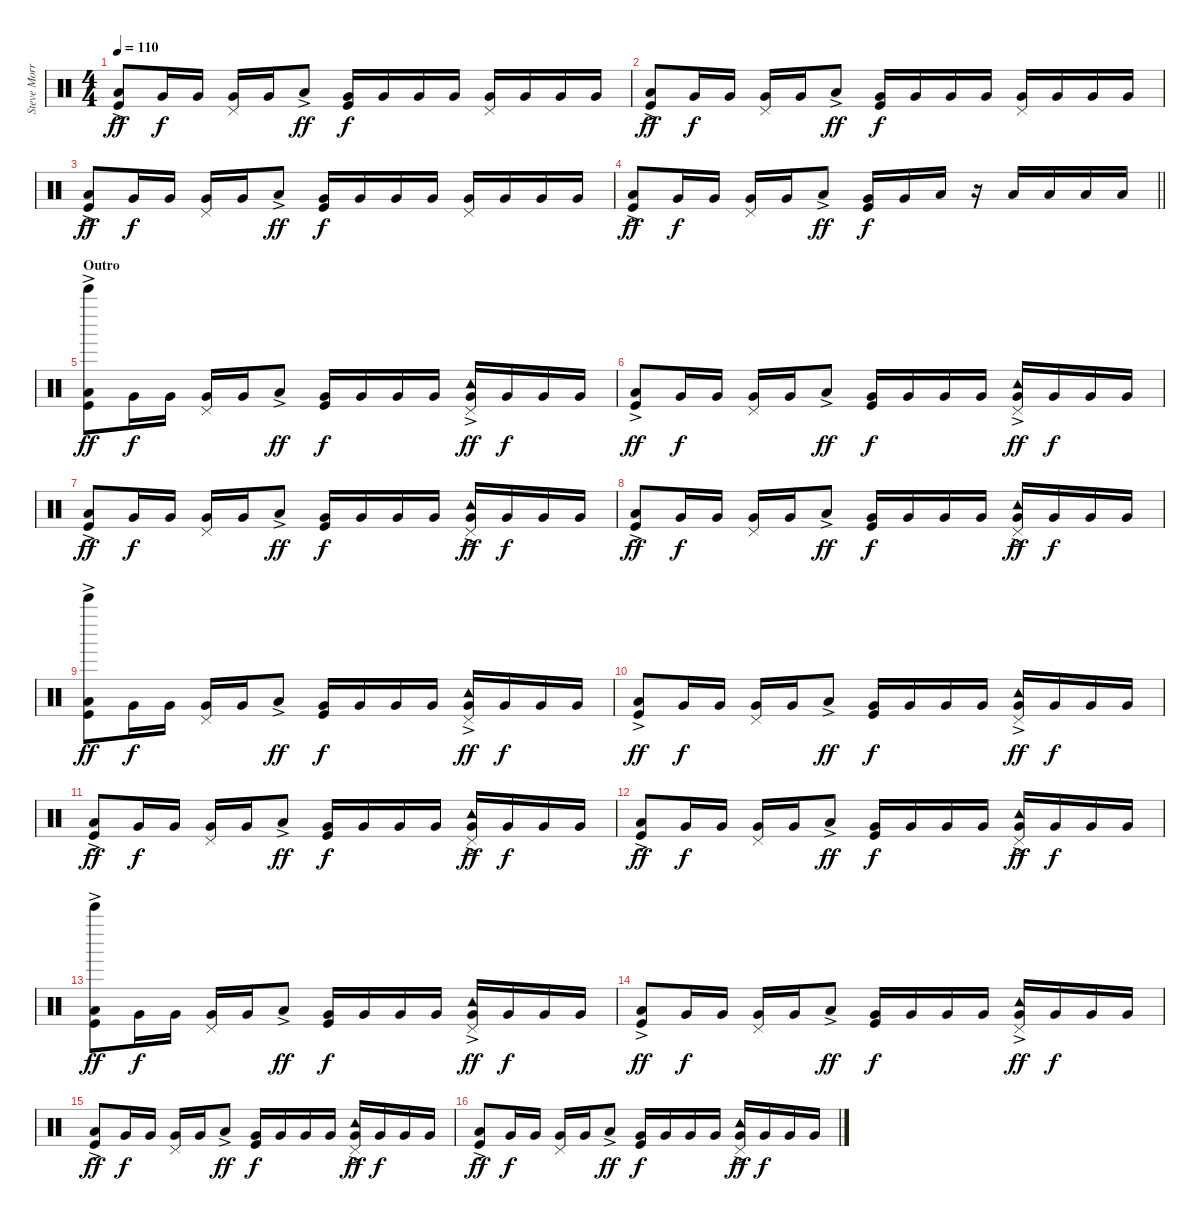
\track ("Steve Morris Drums" "Steve Morr") {instrument percussion}
\staff {score}
\articulation defaults
\ts (4 4)
\tempo 110
\clef neutral
\ks c
("Low Tom (hit)"{ac} "Kick (hit)").8{dy ff} "Very Low Tom (hit)".16{dy f} "Very Low Tom (hit)".16 ("Pedal Hi-Hat (hit)" "Very Low Tom (hit)").16 "Very Low Tom (hit)".16 "Low Tom (hit)"{ac}.8{dy ff} ("Very Low Tom (hit)" "Kick (hit)").16{dy f} "Very Low Tom (hit)".16 "Very Low Tom (hit)".16 "Very Low Tom (hit)".16 ("Pedal Hi-Hat (hit)" "Very Low Tom (hit)").16 "Very Low Tom (hit)".16 "Very Low Tom (hit)".16 "Very Low Tom (hit)".16 |
("Low Tom (hit)"{ac} "Kick (hit)").8{dy ff} "Very Low Tom (hit)".16{dy f} "Very Low Tom (hit)".16 ("Pedal Hi-Hat (hit)" "Very Low Tom (hit)").16 "Very Low Tom (hit)".16 "Low Tom (hit)"{ac}.8{dy ff} ("Very Low Tom (hit)" "Kick (hit)").16{dy f} "Very Low Tom (hit)".16 "Very Low Tom (hit)".16 "Very Low Tom (hit)".16 ("Pedal Hi-Hat (hit)" "Very Low Tom (hit)").16 "Very Low Tom (hit)".16 "Very Low Tom (hit)".16 "Very Low Tom (hit)".16 |
("Low Tom (hit)"{ac} "Kick (hit)").8{dy ff} "Very Low Tom (hit)".16{dy f} "Very Low Tom (hit)".16 ("Pedal Hi-Hat (hit)" "Very Low Tom (hit)").16 "Very Low Tom (hit)".16 "Low Tom (hit)"{ac}.8{dy ff} ("Very Low Tom (hit)" "Kick (hit)").16{dy f} "Very Low Tom (hit)".16 "Very Low Tom (hit)".16 "Very Low Tom (hit)".16 ("Pedal Hi-Hat (hit)" "Very Low Tom (hit)").16 "Very Low Tom (hit)".16 "Very Low Tom (hit)".16 "Very Low Tom (hit)".16 |
\barLineRight lightlight
("Low Tom (hit)"{ac} "Kick (hit)").8{dy ff} "Very Low Tom (hit)".16{dy f} "Very Low Tom (hit)".16 ("Pedal Hi-Hat (hit)" "Very Low Tom (hit)").16 "Very Low Tom (hit)".16 "Low Tom (hit)"{ac}.8{dy ff} ("Very Low Tom (hit)" "Kick (hit)").16{dy f} "Very Low Tom (hit)".16 "Low Tom (hit)".16 r.16 "Low Tom (hit)".16 "Low Tom (hit)".16 "Low Tom (hit)".16 "Low Tom (hit)".16 |
\section ("" "Outro")
("Bell Tree (hit)" "Low Tom (hit)"{ac} "Kick (hit)").8{dy ff} "Very Low Tom (hit)".16{dy f} "Very Low Tom (hit)".16 ("Pedal Hi-Hat (hit)" "Very Low Tom (hit)").16 "Very Low Tom (hit)".16 "Low Tom (hit)"{ac}.8{dy ff} ("Very Low Tom (hit)" "Kick (hit)").16{dy f} "Very Low Tom (hit)".16 "Very Low Tom (hit)".16 "Very Low Tom (hit)".16 ("Pedal Hi-Hat (hit)" "Tambourine (hit)"{ac} "Very Low Tom (hit)").16{dy ff} "Very Low Tom (hit)".16{dy f} "Very Low Tom (hit)".16 "Very Low Tom (hit)".16 |
("Low Tom (hit)"{ac} "Kick (hit)").8{dy ff} "Very Low Tom (hit)".16{dy f} "Very Low Tom (hit)".16 ("Pedal Hi-Hat (hit)" "Very Low Tom (hit)").16 "Very Low Tom (hit)".16 "Low Tom (hit)"{ac}.8{dy ff} ("Very Low Tom (hit)" "Kick (hit)").16{dy f} "Very Low Tom (hit)".16 "Very Low Tom (hit)".16 "Very Low Tom (hit)".16 ("Pedal Hi-Hat (hit)" "Tambourine (hit)"{ac} "Very Low Tom (hit)").16{dy ff} "Very Low Tom (hit)".16{dy f} "Very Low Tom (hit)".16 "Very Low Tom (hit)".16 |
("Low Tom (hit)"{ac} "Kick (hit)").8{dy ff} "Very Low Tom (hit)".16{dy f} "Very Low Tom (hit)".16 ("Pedal Hi-Hat (hit)" "Very Low Tom (hit)").16 "Very Low Tom (hit)".16 "Low Tom (hit)"{ac}.8{dy ff} ("Very Low Tom (hit)" "Kick (hit)").16{dy f} "Very Low Tom (hit)".16 "Very Low Tom (hit)".16 "Very Low Tom (hit)".16 ("Pedal Hi-Hat (hit)" "Tambourine (hit)"{ac} "Very Low Tom (hit)").16{dy ff} "Very Low Tom (hit)".16{dy f} "Very Low Tom (hit)".16 "Very Low Tom (hit)".16 |
("Low Tom (hit)"{ac} "Kick (hit)").8{dy ff} "Very Low Tom (hit)".16{dy f} "Very Low Tom (hit)".16 ("Pedal Hi-Hat (hit)" "Very Low Tom (hit)").16 "Very Low Tom (hit)".16 "Low Tom (hit)"{ac}.8{dy ff} ("Very Low Tom (hit)" "Kick (hit)").16{dy f} "Very Low Tom (hit)".16 "Very Low Tom (hit)".16 "Very Low Tom (hit)".16 ("Pedal Hi-Hat (hit)" "Tambourine (hit)"{ac} "Very Low Tom (hit)").16{dy ff} "Very Low Tom (hit)".16{dy f} "Very Low Tom (hit)".16 "Very Low Tom (hit)".16 |
("Bell Tree (hit)" "Low Tom (hit)"{ac} "Kick (hit)").8{dy ff} "Very Low Tom (hit)".16{dy f} "Very Low Tom (hit)".16 ("Pedal Hi-Hat (hit)" "Very Low Tom (hit)").16 "Very Low Tom (hit)".16 "Low Tom (hit)"{ac}.8{dy ff} ("Very Low Tom (hit)" "Kick (hit)").16{dy f} "Very Low Tom (hit)".16 "Very Low Tom (hit)".16 "Very Low Tom (hit)".16 ("Pedal Hi-Hat (hit)" "Tambourine (hit)"{ac} "Very Low Tom (hit)").16{dy ff} "Very Low Tom (hit)".16{dy f} "Very Low Tom (hit)".16 "Very Low Tom (hit)".16 |
("Low Tom (hit)"{ac} "Kick (hit)").8{dy ff} "Very Low Tom (hit)".16{dy f} "Very Low Tom (hit)".16 ("Pedal Hi-Hat (hit)" "Very Low Tom (hit)").16 "Very Low Tom (hit)".16 "Low Tom (hit)"{ac}.8{dy ff} ("Very Low Tom (hit)" "Kick (hit)").16{dy f} "Very Low Tom (hit)".16 "Very Low Tom (hit)".16 "Very Low Tom (hit)".16 ("Pedal Hi-Hat (hit)" "Tambourine (hit)"{ac} "Very Low Tom (hit)").16{dy ff} "Very Low Tom (hit)".16{dy f} "Very Low Tom (hit)".16 "Very Low Tom (hit)".16 |
("Low Tom (hit)"{ac} "Kick (hit)").8{dy ff} "Very Low Tom (hit)".16{dy f} "Very Low Tom (hit)".16 ("Pedal Hi-Hat (hit)" "Very Low Tom (hit)").16 "Very Low Tom (hit)".16 "Low Tom (hit)"{ac}.8{dy ff} ("Very Low Tom (hit)" "Kick (hit)").16{dy f} "Very Low Tom (hit)".16 "Very Low Tom (hit)".16 "Very Low Tom (hit)".16 ("Pedal Hi-Hat (hit)" "Tambourine (hit)"{ac} "Very Low Tom (hit)").16{dy ff} "Very Low Tom (hit)".16{dy f} "Very Low Tom (hit)".16 "Very Low Tom (hit)".16 |
("Low Tom (hit)"{ac} "Kick (hit)").8{dy ff} "Very Low Tom (hit)".16{dy f} "Very Low Tom (hit)".16 ("Pedal Hi-Hat (hit)" "Very Low Tom (hit)").16 "Very Low Tom (hit)".16 "Low Tom (hit)"{ac}.8{dy ff} ("Very Low Tom (hit)" "Kick (hit)").16{dy f} "Very Low Tom (hit)".16 "Very Low Tom (hit)".16 "Very Low Tom (hit)".16 ("Pedal Hi-Hat (hit)" "Tambourine (hit)"{ac} "Very Low Tom (hit)").16{dy ff} "Very Low Tom (hit)".16{dy f} "Very Low Tom (hit)".16 "Very Low Tom (hit)".16 |
("Bell Tree (hit)" "Low Tom (hit)"{ac} "Kick (hit)").8{dy ff} "Very Low Tom (hit)".16{dy f} "Very Low Tom (hit)".16 ("Pedal Hi-Hat (hit)" "Very Low Tom (hit)").16 "Very Low Tom (hit)".16 "Low Tom (hit)"{ac}.8{dy ff} ("Very Low Tom (hit)" "Kick (hit)").16{dy f} "Very Low Tom (hit)".16 "Very Low Tom (hit)".16 "Very Low Tom (hit)".16 ("Pedal Hi-Hat (hit)" "Tambourine (hit)"{ac} "Very Low Tom (hit)").16{dy ff} "Very Low Tom (hit)".16{dy f} "Very Low Tom (hit)".16 "Very Low Tom (hit)".16 |
("Low Tom (hit)"{ac} "Kick (hit)").8{dy ff} "Very Low Tom (hit)".16{dy f} "Very Low Tom (hit)".16 ("Pedal Hi-Hat (hit)" "Very Low Tom (hit)").16 "Very Low Tom (hit)".16 "Low Tom (hit)"{ac}.8{dy ff} ("Very Low Tom (hit)" "Kick (hit)").16{dy f} "Very Low Tom (hit)".16 "Very Low Tom (hit)".16 "Very Low Tom (hit)".16 ("Pedal Hi-Hat (hit)" "Tambourine (hit)"{ac} "Very Low Tom (hit)").16{dy ff} "Very Low Tom (hit)".16{dy f} "Very Low Tom (hit)".16 "Very Low Tom (hit)".16 |
("Low Tom (hit)"{ac} "Kick (hit)").8{dy ff} "Very Low Tom (hit)".16{dy f} "Very Low Tom (hit)".16 ("Pedal Hi-Hat (hit)" "Very Low Tom (hit)").16 "Very Low Tom (hit)".16 "Low Tom (hit)"{ac}.8{dy ff} ("Very Low Tom (hit)" "Kick (hit)").16{dy f} "Very Low Tom (hit)".16 "Very Low Tom (hit)".16 "Very Low Tom (hit)".16 ("Pedal Hi-Hat (hit)" "Tambourine (hit)"{ac} "Very Low Tom (hit)").16{dy ff} "Very Low Tom (hit)".16{dy f} "Very Low Tom (hit)".16 "Very Low Tom (hit)".16 |
("Low Tom (hit)"{ac} "Kick (hit)").8{dy ff} "Very Low Tom (hit)".16{dy f} "Very Low Tom (hit)".16 ("Pedal Hi-Hat (hit)" "Very Low Tom (hit)").16 "Very Low Tom (hit)".16 "Low Tom (hit)"{ac}.8{dy ff} ("Very Low Tom (hit)" "Kick (hit)").16{dy f} "Very Low Tom (hit)".16 "Very Low Tom (hit)".16 "Very Low Tom (hit)".16 ("Pedal Hi-Hat (hit)" "Tambourine (hit)"{ac} "Very Low Tom (hit)").16{dy ff} "Very Low Tom (hit)".16{dy f} "Very Low Tom (hit)".16 "Very Low Tom (hit)".16
